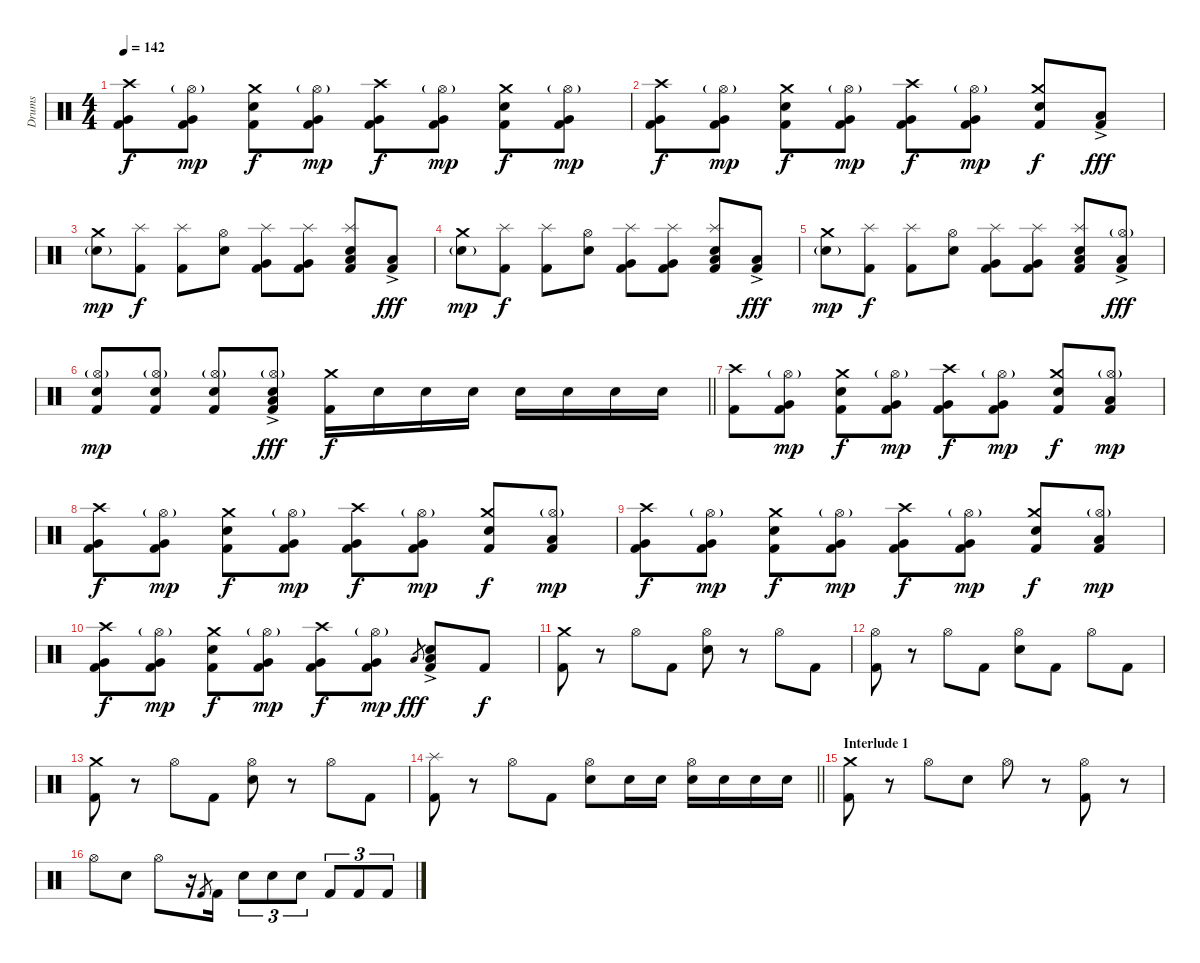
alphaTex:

\track ("Drums" "Drums") {instrument percussion}
\staff {score}
\articulation defaults
\ts (4 4)
\tempo 142
\clef neutral
\ks c
("Crash high (hit)" "Very Low Tom (hit)" "Kick (hit) 2").8{dy f} ("Hi-Hat (open)"{g} "Very Low Tom (hit)" "Kick (hit) 2").8{dy mp} ("Crash medium (hit)" "Electric Snare (hit)" "Kick (hit) 2").8{dy f} ("Hi-Hat (open)"{g} "Very Low Tom (hit)" "Kick (hit) 2").8{dy mp} ("Crash high (hit)" "Very Low Tom (hit)" "Kick (hit) 2").8{dy f} ("Hi-Hat (open)"{g} "Very Low Tom (hit)" "Kick (hit) 2").8{dy mp} ("Crash medium (hit)" "Electric Snare (hit)" "Kick (hit) 2").8{dy f} ("Hi-Hat (open)"{g} "Very Low Tom (hit)" "Kick (hit) 2").8{dy mp} |
("Crash high (hit)" "Very Low Tom (hit)" "Kick (hit) 2").8{dy f} ("Hi-Hat (open)"{g} "Very Low Tom (hit)" "Kick (hit) 2").8{dy mp} ("Crash medium (hit)" "Electric Snare (hit)" "Kick (hit) 2").8{dy f} ("Hi-Hat (open)"{g} "Very Low Tom (hit)" "Kick (hit) 2").8{dy mp} ("Crash high (hit)" "Very Low Tom (hit)" "Kick (hit) 2").8{dy f} ("Hi-Hat (open)"{g} "Very Low Tom (hit)" "Kick (hit) 2").8{dy mp} ("Crash medium (hit)" "Electric Snare (hit)" "Kick (hit) 2").8{dy f} ("Low Floor Tom (hit)"{ac} "Kick (hit) 2").8{dy fff} |
("Crash medium (hit)" "Electric Snare (hit)"{g}).8{dy mp} ("Splash (hit)" "Kick (hit) 2").8{dy f} ("Splash (hit)" "Kick (hit) 2").8 ("Hi-Hat (open)" "Electric Snare (hit)").8 ("Splash (hit)" "Very Low Tom (hit)" "Kick (hit) 2").8 ("Splash (hit)" "Very Low Tom (hit)" "Kick (hit) 2").8 ("Splash (hit)" "Electric Snare (hit)" "Low Tom (hit)" "Kick (hit) 2").8 ("Low Floor Tom (hit)"{ac} "Kick (hit) 2").8{dy fff} |
("Crash medium (hit)" "Electric Snare (hit)"{g}).8{dy mp} ("Splash (hit)" "Kick (hit) 2").8{dy f} ("Splash (hit)" "Kick (hit) 2").8 ("Hi-Hat (open)" "Electric Snare (hit)").8 ("Splash (hit)" "Very Low Tom (hit)" "Kick (hit) 2").8 ("Splash (hit)" "Very Low Tom (hit)" "Kick (hit) 2").8 ("Splash (hit)" "Electric Snare (hit)" "Low Tom (hit)" "Kick (hit) 2").8 ("Low Floor Tom (hit)"{ac} "Kick (hit) 2").8{dy fff} |
("Crash medium (hit)" "Electric Snare (hit)"{g}).8{dy mp} ("Splash (hit)" "Kick (hit) 2").8{dy f} ("Splash (hit)" "Kick (hit) 2").8 ("Hi-Hat (open)" "Electric Snare (hit)").8 ("Splash (hit)" "Very Low Tom (hit)" "Kick (hit) 2").8 ("Splash (hit)" "Very Low Tom (hit)" "Kick (hit) 2").8 ("Splash (hit)" "Electric Snare (hit)" "Low Tom (hit)" "Kick (hit) 2").8 ("Hi-Hat (open)"{g} "Low Floor Tom (hit)"{ac} "Kick (hit) 2").8{dy fff} |
\barLineRight lightlight
("Hi-Hat (open)"{g} "Electric Snare (hit)" "Kick (hit) 2").8{dy mp} ("Hi-Hat (open)"{g} "Electric Snare (hit)" "Kick (hit) 2").8 ("Hi-Hat (open)"{g} "Electric Snare (hit)" "Kick (hit) 2").8 ("Hi-Hat (open)"{g} "Electric Snare (hit)" "Low Floor Tom (hit)"{ac} "Kick (hit) 2"{ac}).8{dy fff} ("Crash medium (hit)" "Kick (hit) 2").16{dy f} "Electric Snare (hit)".16 "Electric Snare (hit)".16 "Electric Snare (hit)".16 "Electric Snare (hit)".16 "Electric Snare (hit)".16 "Electric Snare (hit)".16 "Electric Snare (hit)".16 |
\section ("" "")
("Crash high (hit)" "Kick (hit) 2").8 ("Hi-Hat (open)"{g} "Very Low Tom (hit)" "Kick (hit) 2").8{dy mp} ("Crash medium (hit)" "Electric Snare (hit)" "Kick (hit) 2").8{dy f} ("Hi-Hat (open)"{g} "Very Low Tom (hit)" "Kick (hit) 2").8{dy mp} ("Crash high (hit)" "Very Low Tom (hit)" "Kick (hit) 2").8{dy f} ("Hi-Hat (open)"{g} "Very Low Tom (hit)" "Kick (hit) 2").8{dy mp} ("Crash medium (hit)" "Electric Snare (hit)" "Kick (hit) 2").8{dy f} ("Hi-Hat (open)"{g} "Low Floor Tom (hit)" "Kick (hit) 2").8{dy mp} |
("Crash high (hit)" "Very Low Tom (hit)" "Kick (hit) 2").8{dy f} ("Hi-Hat (open)"{g} "Very Low Tom (hit)" "Kick (hit) 2").8{dy mp} ("Crash medium (hit)" "Electric Snare (hit)" "Kick (hit) 2").8{dy f} ("Hi-Hat (open)"{g} "Very Low Tom (hit)" "Kick (hit) 2").8{dy mp} ("Crash high (hit)" "Very Low Tom (hit)" "Kick (hit) 2").8{dy f} ("Hi-Hat (open)"{g} "Very Low Tom (hit)" "Kick (hit) 2").8{dy mp} ("Crash medium (hit)" "Electric Snare (hit)" "Kick (hit) 2").8{dy f} ("Hi-Hat (open)"{g} "Low Floor Tom (hit)" "Kick (hit) 2").8{dy mp} |
("Crash high (hit)" "Very Low Tom (hit)" "Kick (hit) 2").8{dy f} ("Hi-Hat (open)"{g} "Very Low Tom (hit)" "Kick (hit) 2").8{dy mp} ("Crash medium (hit)" "Electric Snare (hit)" "Kick (hit) 2").8{dy f} ("Hi-Hat (open)"{g} "Very Low Tom (hit)" "Kick (hit) 2").8{dy mp} ("Crash high (hit)" "Very Low Tom (hit)" "Kick (hit) 2").8{dy f} ("Hi-Hat (open)"{g} "Very Low Tom (hit)" "Kick (hit) 2").8{dy mp} ("Crash medium (hit)" "Electric Snare (hit)" "Kick (hit) 2").8{dy f} ("Hi-Hat (open)"{g} "Low Floor Tom (hit)" "Kick (hit) 2").8{dy mp} |
("Crash high (hit)" "Very Low Tom (hit)" "Kick (hit) 2").8{dy f} ("Hi-Hat (open)"{g} "Very Low Tom (hit)" "Kick (hit) 2").8{dy mp} ("Crash medium (hit)" "Electric Snare (hit)" "Kick (hit) 2").8{dy f} ("Hi-Hat (open)"{g} "Very Low Tom (hit)" "Kick (hit) 2").8{dy mp} ("Crash high (hit)" "Very Low Tom (hit)" "Kick (hit) 2").8{dy f} ("Hi-Hat (open)"{g} "Very Low Tom (hit)" "Kick (hit) 2").8{dy mp} "Low Floor Tom (hit)".8{gr dy fff} ("Electric Snare (hit)"{ac} "Low Floor Tom (hit)"{ac} "Kick (hit) 2").8 "Kick (hit) 2".8{dy f} |
("Crash medium (hit)" "Kick (hit) 2").8 r.8 "Hi-Hat (open)".8 "Kick (hit) 2".8 ("Hi-Hat (open)" "Electric Snare (hit)").8 r.8 "Hi-Hat (open)".8 "Kick (hit) 2".8 |
("Hi-Hat (open)" "Kick (hit) 2").8 r.8 "Hi-Hat (open)".8 "Kick (hit) 2".8 ("Hi-Hat (open)" "Electric Snare (hit)").8 "Kick (hit) 2".8 "Hi-Hat (open)".8 "Kick (hit) 2".8 |
("Crash medium (hit)" "Kick (hit) 2").8 r.8 "Hi-Hat (open)".8 "Kick (hit) 2".8 ("Hi-Hat (open)" "Electric Snare (hit)").8 r.8 "Hi-Hat (open)".8 "Kick (hit) 2".8 |
\barLineRight lightlight
("Splash (hit)" "Kick (hit) 2").8 r.8 "Hi-Hat (open)".8 "Kick (hit) 2".8 ("Hi-Hat (open)" "Electric Snare (hit)").8 "Electric Snare (hit)".16 "Electric Snare (hit)".16 ("Hi-Hat (open)" "Electric Snare (hit)").16 "Electric Snare (hit)".16 "Electric Snare (hit)".16 "Electric Snare (hit)".16 |
\section ("" "Interlude 1")
("Crash medium (hit)" "Kick (hit) 2").8 r.8 "Hi-Hat (open)".8 "Electric Snare (hit)".8 "Hi-Hat (open)".8 r.8 ("Hi-Hat (open)" "Kick (hit) 2").8 r.8 |
"Hi-Hat (open)".8 "Electric Snare (hit)".8 "Hi-Hat (open)".8 r.16 "Kick (hit) 2".8{gr} "Kick (hit) 2".16 "Electric Snare (hit)".8{tu (3 2)} "Electric Snare (hit)".8{tu (3 2)} "Electric Snare (hit)".8{tu (3 2)} "Kick (hit) 2".8{tu (3 2)} "Kick (hit) 2".8{tu (3 2)} "Kick (hit) 2".8{tu (3 2)}
